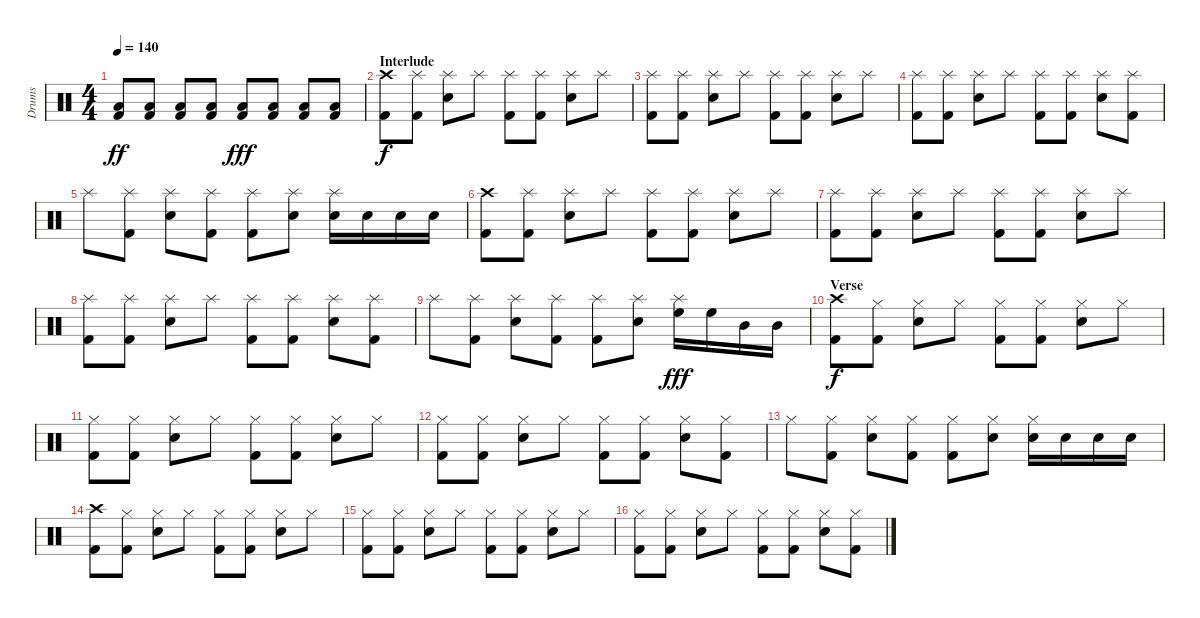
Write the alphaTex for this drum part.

\track ("Drums" "Drums") {instrument percussion}
\staff {score}
\articulation defaults
\ts (4 4)
\tempo 140
\clef neutral
\ks c
("Low Floor Tom (hit)" "Kick (hit) 2").8{dy ff} ("Low Floor Tom (hit)" "Kick (hit) 2").8 ("Low Floor Tom (hit)" "Kick (hit) 2").8 ("Low Floor Tom (hit)" "Kick (hit) 2").8 ("Low Floor Tom (hit)" "Kick (hit) 2").8{dy fff} ("Low Floor Tom (hit)" "Kick (hit) 2").8 ("Low Floor Tom (hit)" "Kick (hit) 2").8 ("Low Floor Tom (hit)" "Kick (hit) 2").8 |
\section ("" "Interlude")
("Crash high (hit)" "Kick (hit) 2").8{dy f} ("Splash (hit)" "Kick (hit) 2").8 ("Splash (hit)" "Electric Snare (hit)").8 "Splash (hit)".8 ("Splash (hit)" "Kick (hit) 2").8 ("Splash (hit)" "Kick (hit) 2").8 ("Splash (hit)" "Electric Snare (hit)").8 "Splash (hit)".8 |
("Splash (hit)" "Kick (hit) 2").8 ("Splash (hit)" "Kick (hit) 2").8 ("Splash (hit)" "Electric Snare (hit)").8 "Splash (hit)".8 ("Splash (hit)" "Kick (hit) 2").8 ("Splash (hit)" "Kick (hit) 2").8 ("Splash (hit)" "Electric Snare (hit)").8 "Splash (hit)".8 |
("Splash (hit)" "Kick (hit) 2").8 ("Splash (hit)" "Kick (hit) 2").8 ("Splash (hit)" "Electric Snare (hit)").8 "Splash (hit)".8 ("Splash (hit)" "Kick (hit) 2").8 ("Splash (hit)" "Kick (hit) 2").8 ("Splash (hit)" "Electric Snare (hit)").8 ("Splash (hit)" "Kick (hit) 2").8 |
"Splash (hit)".8 ("Splash (hit)" "Kick (hit) 2").8 ("Splash (hit)" "Electric Snare (hit)").8 ("Splash (hit)" "Kick (hit) 2").8 ("Splash (hit)" "Kick (hit) 2").8 ("Splash (hit)" "Electric Snare (hit)").8 ("Splash (hit)" "Electric Snare (hit)").16 "Electric Snare (hit)".16 "Electric Snare (hit)".16 "Electric Snare (hit)".16 |
("Crash high (hit)" "Kick (hit) 2").8 ("Splash (hit)" "Kick (hit) 2").8 ("Splash (hit)" "Electric Snare (hit)").8 "Splash (hit)".8 ("Splash (hit)" "Kick (hit) 2").8 ("Splash (hit)" "Kick (hit) 2").8 ("Splash (hit)" "Electric Snare (hit)").8 "Splash (hit)".8 |
("Splash (hit)" "Kick (hit) 2").8 ("Splash (hit)" "Kick (hit) 2").8 ("Splash (hit)" "Electric Snare (hit)").8 "Splash (hit)".8 ("Splash (hit)" "Kick (hit) 2").8 ("Splash (hit)" "Kick (hit) 2").8 ("Splash (hit)" "Electric Snare (hit)").8 "Splash (hit)".8 |
("Splash (hit)" "Kick (hit) 2").8 ("Splash (hit)" "Kick (hit) 2").8 ("Splash (hit)" "Electric Snare (hit)").8 "Splash (hit)".8 ("Splash (hit)" "Kick (hit) 2").8 ("Splash (hit)" "Kick (hit) 2").8 ("Splash (hit)" "Electric Snare (hit)").8 ("Splash (hit)" "Kick (hit) 2").8 |
"Splash (hit)".8 ("Splash (hit)" "Kick (hit) 2").8 ("Splash (hit)" "Electric Snare (hit)").8 ("Splash (hit)" "Kick (hit) 2").8 ("Splash (hit)" "Kick (hit) 2").8 ("Splash (hit)" "Electric Snare (hit)").8 ("Splash (hit)" "High Floor Tom (hit)").16{dy fff} "High Floor Tom (hit)".16 "Mid Tom (hit)".16 "Mid Tom (hit)".16 |
\section ("" "Verse")
("Crash high (hit)" "Kick (hit) 2").8{dy f} ("Hi-Hat (closed)" "Kick (hit) 2").8 ("Hi-Hat (closed)" "Electric Snare (hit)").8 "Hi-Hat (closed)".8 ("Hi-Hat (closed)" "Kick (hit) 2").8 ("Hi-Hat (closed)" "Kick (hit) 2").8 ("Hi-Hat (closed)" "Electric Snare (hit)").8 "Hi-Hat (closed)".8 |
("Hi-Hat (closed)" "Kick (hit) 2").8 ("Hi-Hat (closed)" "Kick (hit) 2").8 ("Hi-Hat (closed)" "Electric Snare (hit)").8 "Hi-Hat (closed)".8 ("Hi-Hat (closed)" "Kick (hit) 2").8 ("Hi-Hat (closed)" "Kick (hit) 2").8 ("Hi-Hat (closed)" "Electric Snare (hit)").8 "Hi-Hat (closed)".8 |
("Hi-Hat (closed)" "Kick (hit) 2").8 ("Hi-Hat (closed)" "Kick (hit) 2").8 ("Hi-Hat (closed)" "Electric Snare (hit)").8 "Hi-Hat (closed)".8 ("Hi-Hat (closed)" "Kick (hit) 2").8 ("Hi-Hat (closed)" "Kick (hit) 2").8 ("Hi-Hat (closed)" "Electric Snare (hit)").8 ("Hi-Hat (closed)" "Kick (hit) 2").8 |
"Hi-Hat (closed)".8 ("Hi-Hat (closed)" "Kick (hit) 2").8 ("Hi-Hat (closed)" "Electric Snare (hit)").8 ("Hi-Hat (closed)" "Kick (hit) 2").8 ("Hi-Hat (closed)" "Kick (hit) 2").8 ("Hi-Hat (closed)" "Electric Snare (hit)").8 ("Hi-Hat (closed)" "Electric Snare (hit)").16 "Electric Snare (hit)".16 "Electric Snare (hit)".16 "Electric Snare (hit)".16 |
("Crash high (hit)" "Kick (hit) 2").8 ("Hi-Hat (closed)" "Kick (hit) 2").8 ("Hi-Hat (closed)" "Electric Snare (hit)").8 "Hi-Hat (closed)".8 ("Hi-Hat (closed)" "Kick (hit) 2").8 ("Hi-Hat (closed)" "Kick (hit) 2").8 ("Hi-Hat (closed)" "Electric Snare (hit)").8 "Hi-Hat (closed)".8 |
("Hi-Hat (closed)" "Kick (hit) 2").8 ("Hi-Hat (closed)" "Kick (hit) 2").8 ("Hi-Hat (closed)" "Electric Snare (hit)").8 "Hi-Hat (closed)".8 ("Hi-Hat (closed)" "Kick (hit) 2").8 ("Hi-Hat (closed)" "Kick (hit) 2").8 ("Hi-Hat (closed)" "Electric Snare (hit)").8 "Hi-Hat (closed)".8 |
("Hi-Hat (closed)" "Kick (hit) 2").8 ("Hi-Hat (closed)" "Kick (hit) 2").8 ("Hi-Hat (closed)" "Electric Snare (hit)").8 "Hi-Hat (closed)".8 ("Hi-Hat (closed)" "Kick (hit) 2").8 ("Hi-Hat (closed)" "Kick (hit) 2").8 ("Hi-Hat (closed)" "Electric Snare (hit)").8 ("Hi-Hat (closed)" "Kick (hit) 2").8
